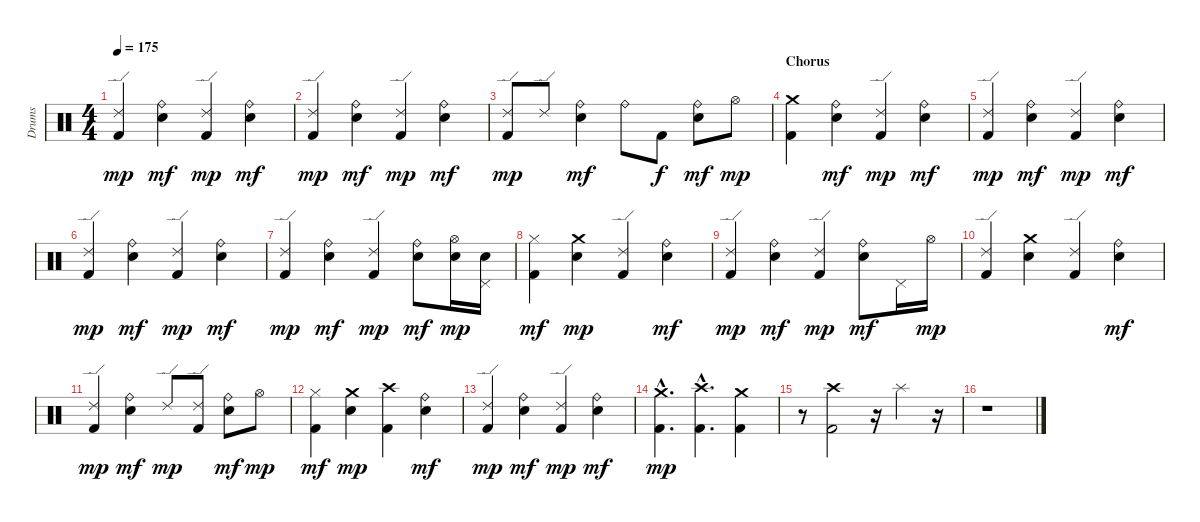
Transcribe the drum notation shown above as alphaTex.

\track ("Drums" "Drums") {instrument percussion}
\staff {score}
\articulation defaults
\ts (4 4)
\tempo 175
\clef neutral
\ks c
("Ride (edge) 2" "Kick (hit) 2").4{dy mp} ("Ride (bell)" "Electric Snare (hit)").4{dy mf} ("Ride (edge) 2" "Kick (hit) 2").4{dy mp} ("Ride (bell)" "Electric Snare (hit)").4{dy mf} |
("Ride (edge) 2" "Kick (hit) 2").4{dy mp} ("Ride (bell)" "Electric Snare (hit)").4{dy mf} ("Ride (edge) 2" "Kick (hit) 2").4{dy mp} ("Ride (bell)" "Electric Snare (hit)").4{dy mf} |
("Ride (edge) 2" "Kick (hit) 2").8{dy mp} "Ride (edge) 2".8 ("Ride (bell)" "Electric Snare (hit)").4{dy mf} "Ride (bell)".8 "Kick (hit) 2".8{dy f} ("Ride (bell)" "Electric Snare (hit)").8{dy mf} "Hi-Hat (open)".8{dy mp} |
\section ("" "Chorus")
("Crash medium (hit)" "Kick (hit) 2").4 ("Ride (bell)" "Electric Snare (hit)").4{dy mf} ("Ride (edge) 2" "Kick (hit) 2").4{dy mp} ("Ride (bell)" "Electric Snare (hit)").4{dy mf} |
("Ride (edge) 2" "Kick (hit) 2").4{dy mp} ("Ride (bell)" "Electric Snare (hit)").4{dy mf} ("Ride (edge) 2" "Kick (hit) 2").4{dy mp} ("Ride (bell)" "Electric Snare (hit)").4{dy mf} |
("Ride (edge) 2" "Kick (hit) 2").4{dy mp} ("Ride (bell)" "Electric Snare (hit)").4{dy mf} ("Ride (edge) 2" "Kick (hit) 2").4{dy mp} ("Ride (bell)" "Electric Snare (hit)").4{dy mf} |
("Ride (edge) 2" "Kick (hit) 2").4{dy mp} ("Ride (bell)" "Electric Snare (hit)").4{dy mf} ("Ride (edge) 2" "Kick (hit) 2").4{dy mp} ("Ride (bell)" "Electric Snare (hit)").8{dy mf} ("Hi-Hat (open)" "Electric Snare (hit)").16{dy mp} ("Pedal Hi-Hat (hit)" "Electric Snare (hit)").16 |
("Hi-Hat (closed)" "Kick (hit) 2").4{dy mf} ("Crash medium (hit)" "Electric Snare (hit)").4{dy mp} ("Ride (edge) 2" "Kick (hit) 2").4 ("Ride (bell)" "Electric Snare (hit)").4{dy mf} |
("Ride (edge) 2" "Kick (hit) 2").4{dy mp} ("Ride (bell)" "Electric Snare (hit)").4{dy mf} ("Ride (edge) 2" "Kick (hit) 2").4{dy mp} ("Ride (bell)" "Electric Snare (hit)").8{dy mf} "Pedal Hi-Hat (hit)".16 "Hi-Hat (open)".16{dy mp} |
("Ride (edge) 2" "Kick (hit) 2").4 ("Crash medium (hit)" "Electric Snare (hit)").4 ("Ride (edge) 2" "Kick (hit) 2").4 ("Ride (bell)" "Electric Snare (hit)").4{dy mf} |
("Ride (edge) 2" "Kick (hit) 2").4{dy mp} ("Ride (bell)" "Electric Snare (hit)").4{dy mf} "Ride (edge) 2".8{dy mp} ("Ride (edge) 2" "Kick (hit) 2").8 ("Ride (bell)" "Electric Snare (hit)").8{dy mf} "Hi-Hat (open)".8{dy mp} |
("Hi-Hat (closed)" "Kick (hit) 2").4{dy mf} ("Crash medium (hit)" "Electric Snare (hit)").4{dy mp} ("Crash high (hit)" "Kick (hit) 2").4 ("Ride (bell)" "Electric Snare (hit)").4{dy mf} |
("Ride (edge) 2" "Kick (hit) 2").4{dy mp} ("Ride (bell)" "Electric Snare (hit)").4{dy mf} ("Ride (edge) 2" "Kick (hit) 2").4{dy mp} ("Ride (bell)" "Electric Snare (hit)").4{dy mf} |
("Crash medium (hit)"{hac} "Kick (hit) 2"{hac}).4{d dy mp} ("Crash high (hit)"{hac} "Kick (hit) 2"{hac}).4{d} ("Crash medium (hit)" "Kick (hit) 2").4 |
r.8 ("Crash high (hit)" "Kick (hit) 2").2 r.16 "Splash (hit)".4 r.16 |
r.1
